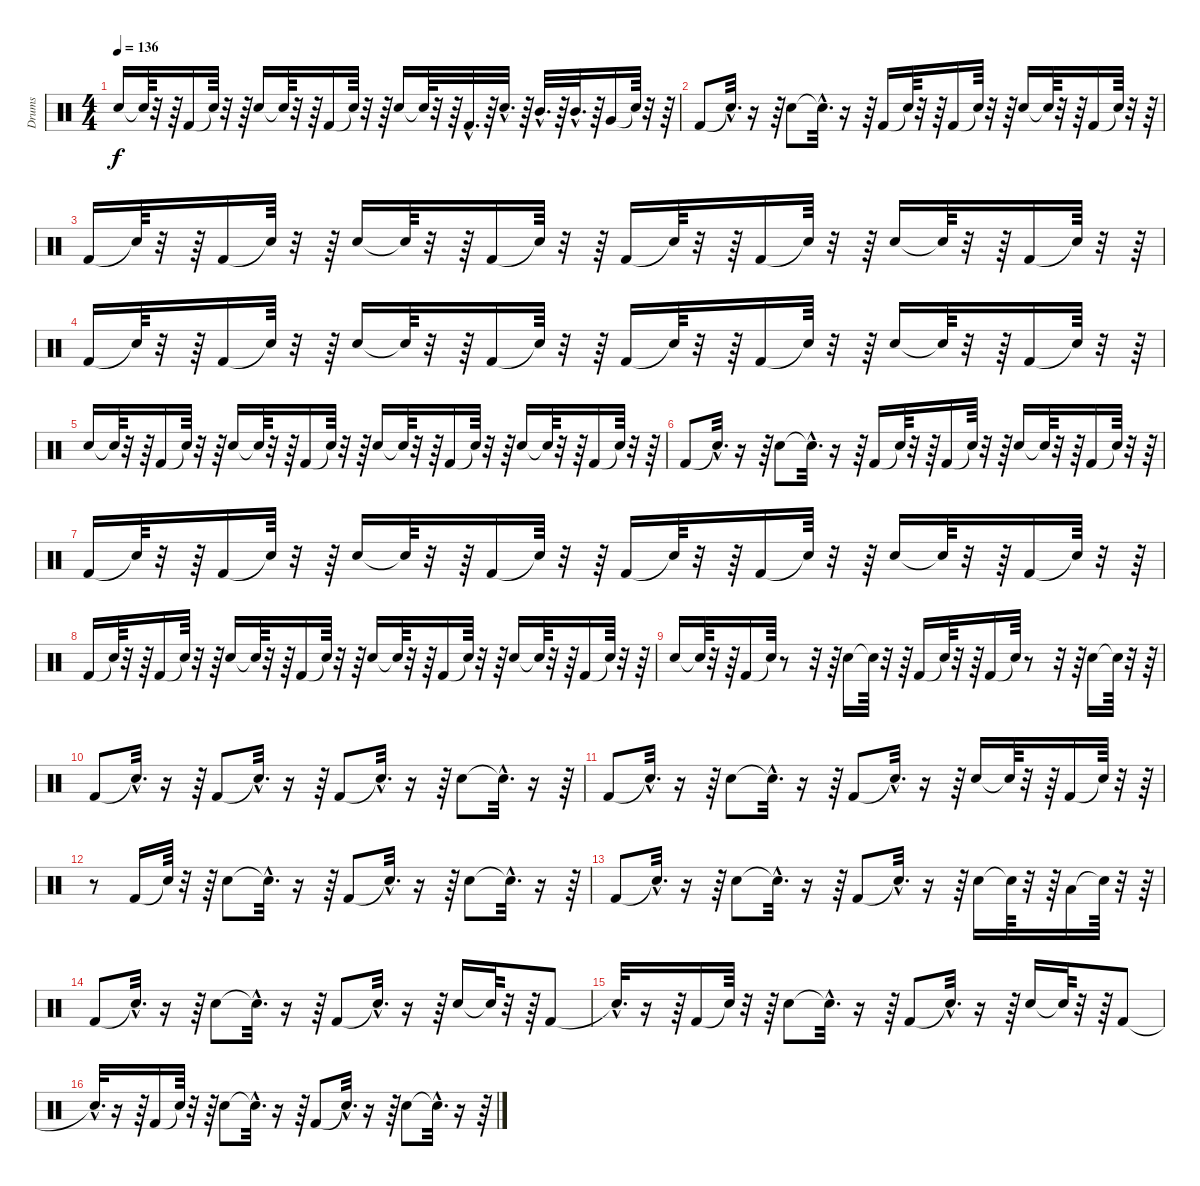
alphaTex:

\track ("Drums" "Drums") {instrument percussion}
\staff {score}
\articulation defaults
\ts (4 4)
\tempo 136
\clef neutral
\ks c "Snare (hit) 2".16{dy f} "Snare (hit)"{t}.64
r.32 r.64 "Kick (hit) 2".16 "Snare (hit)"{t}.64 r.32 r.64 "Snare (hit) 2".16 "Snare (hit)"{t}.64 r.32 r.64 "Kick (hit) 2".16 "Snare (hit)"{t}.64 r.32 r.64 "Snare (hit) 2".16 "Snare (hit)"{t}.64 r.32 r.64 "Kick (hit) 2"{hac}.32{d} r.64 "Snare (hit) 2"{hac}.32{d} r.64 "Mid Tom (hit)"{hac}.32{d} r.64 "Mid Tom (hit)"{hac}.32{d} r.64 "Very Low Tom (hit)".16 "Snare (hit)"{t}.64 r.32 r.64 |
"Kick (hit) 2".8 "Snare (hit)"{hac t}.32{d} r.16 r.64 "Snare (hit) 2".8 "Snare (hit)"{hac t}.32{d} r.16 r.64 "Kick (hit) 2".16 "Snare (hit)"{t}.64 r.32 r.64 "Kick (hit) 2".16 "Snare (hit)"{t}.64 r.32 r.64 "Snare (hit) 2".16 "Snare (hit)"{t}.64 r.32 r.64 "Kick (hit) 2".16 "Snare (hit)"{t}.64 r.32 r.64 |
"Kick (hit) 2".16 "Snare (hit)"{t}.64 r.32 r.64 "Kick (hit) 2".16 "Snare (hit)"{t}.64 r.32 r.64 "Snare (hit) 2".16 "Snare (hit)"{t}.64 r.32 r.64 "Kick (hit) 2".16 "Snare (hit)"{t}.64 r.32 r.64 "Kick (hit) 2".16 "Snare (hit)"{t}.64 r.32 r.64 "Kick (hit) 2".16 "Snare (hit)"{t}.64 r.32 r.64 "Snare (hit) 2".16 "Snare (hit)"{t}.64 r.32 r.64 "Kick (hit) 2".16 "Snare (hit)"{t}.64 r.32 r.64 |
"Kick (hit) 2".16 "Snare (hit)"{t}.64 r.32 r.64 "Kick (hit) 2".16 "Snare (hit)"{t}.64 r.32 r.64 "Snare (hit) 2".16 "Snare (hit)"{t}.64 r.32 r.64 "Kick (hit) 2".16 "Snare (hit)"{t}.64 r.32 r.64 "Kick (hit) 2".16 "Snare (hit)"{t}.64 r.32 r.64 "Kick (hit) 2".16 "Snare (hit)"{t}.64 r.32 r.64 "Snare (hit) 2".16 "Snare (hit)"{t}.64 r.32 r.64 "Kick (hit) 2".16 "Snare (hit)"{t}.64 r.32 r.64 |
"Snare (hit) 2".16 "Snare (hit)"{t}.64 r.32 r.64 "Kick (hit) 2".16 "Snare (hit)"{t}.64 r.32 r.64 "Snare (hit) 2".16 "Snare (hit)"{t}.64 r.32 r.64 "Kick (hit) 2".16 "Snare (hit)"{t}.64 r.32 r.64 "Snare (hit) 2".16 "Snare (hit)"{t}.64 r.32 r.64 "Kick (hit) 2".16 "Snare (hit)"{t}.64 r.32 r.64 "Snare (hit) 2".16 "Snare (hit)"{t}.64 r.32 r.64 "Kick (hit) 2".16 "Snare (hit)"{t}.64 r.32 r.64 |
"Kick (hit) 2".8 "Snare (hit)"{hac t}.32{d} r.16 r.64 "Snare (hit) 2".8 "Snare (hit)"{hac t}.32{d} r.16 r.64 "Kick (hit) 2".16 "Snare (hit)"{t}.64 r.32 r.64 "Kick (hit) 2".16 "Snare (hit)"{t}.64 r.32 r.64 "Snare (hit) 2".16 "Snare (hit)"{t}.64 r.32 r.64 "Kick (hit) 2".16 "Snare (hit)"{t}.64 r.32 r.64 |
"Kick (hit) 2".16 "Snare (hit)"{t}.64 r.32 r.64 "Kick (hit) 2".16 "Snare (hit)"{t}.64 r.32 r.64 "Snare (hit) 2".16 "Snare (hit)"{t}.64 r.32 r.64 "Kick (hit) 2".16 "Snare (hit)"{t}.64 r.32 r.64 "Kick (hit) 2".16 "Snare (hit)"{t}.64 r.32 r.64 "Kick (hit) 2".16 "Snare (hit)"{t}.64 r.32 r.64 "Snare (hit) 2".16 "Snare (hit)"{t}.64 r.32 r.64 "Kick (hit) 2".16 "Snare (hit)"{t}.64 r.32 r.64 |
"Kick (hit) 2".16 "Snare (hit)"{t}.64 r.32 r.64 "Kick (hit) 2".16 "Snare (hit)"{t}.64 r.32 r.64 "Snare (hit) 2".16 "Snare (hit)"{t}.64 r.32 r.64 "Kick (hit) 2".16 "Snare (hit)"{t}.64 r.32 r.64 "Snare (hit) 2".16 "Snare (hit)"{t}.64 r.32 r.64 "Kick (hit) 2".16 "Snare (hit)"{t}.64 r.32 r.64 "Snare (hit) 2".16 "Snare (hit)"{t}.64 r.32 r.64 "Kick (hit) 2".16 "Snare (hit)"{t}.64 r.32 r.64 |
"Snare (hit) 2".16 "Snare (hit)"{t}.64 r.32 r.64 "Kick (hit) 2".16 "Snare (hit)"{t}.64 r.8 r.32 r.64 "Snare (hit) 2".16 "Snare (hit)"{t}.64 r.32 r.64 "Kick (hit) 2".16 "Snare (hit)"{t}.64 r.32 r.64 "Kick (hit) 2".16 "Snare (hit)"{t}.64 r.8 r.32 r.64 "Snare (hit) 2".16 "Snare (hit)"{t}.64 r.32 r.64 |
"Kick (hit) 2".8 "Snare (hit)"{hac t}.32{d} r.16 r.64 "Kick (hit) 2".8 "Snare (hit)"{hac t}.32{d} r.16 r.64 "Kick (hit) 2".8 "Snare (hit)"{hac t}.32{d} r.16 r.64 "Snare (hit) 2".8 "Snare (hit)"{hac t}.32{d} r.16 r.64 |
"Kick (hit) 2".8 "Snare (hit)"{hac t}.32{d} r.16 r.64 "Snare (hit) 2".8 "Snare (hit)"{hac t}.32{d} r.16 r.64 "Kick (hit) 2".8 "Snare (hit)"{hac t}.32{d} r.16 r.64 "Snare (hit) 2".16 "Snare (hit)"{t}.64 r.32 r.64 "Kick (hit) 2".16 "Snare (hit)"{t}.64 r.32 r.64 |
r.8 "Kick (hit) 2".16 "Snare (hit)"{t}.64 r.32 r.64 "Snare (hit) 2".8 "Snare (hit)"{hac t}.32{d} r.16 r.64 "Kick (hit) 2".8 "Snare (hit)"{hac t}.32{d} r.16 r.64 "Snare (hit) 2".8 "Snare (hit)"{hac t}.32{d} r.16 r.64 |
"Kick (hit) 2".8 "Snare (hit)"{hac t}.32{d} r.16 r.64 "Snare (hit) 2".8 "Snare (hit)"{hac t}.32{d} r.16 r.64 "Kick (hit) 2".8 "Snare (hit)"{hac t}.32{d} r.16 r.64 "Snare (hit) 2".16 "Snare (hit)"{t}.64 r.32 r.64 "Low Tom (hit)".16 "Snare (hit)"{t}.64 r.32 r.64 |
"Kick (hit) 2".8 "Snare (hit)"{hac t}.32{d} r.16 r.64 "Snare (hit) 2".8 "Snare (hit)"{hac t}.32{d} r.16 r.64 "Kick (hit) 2".8 "Snare (hit)"{hac t}.32{d} r.16 r.64 "Snare (hit) 2".16 "Snare (hit)"{t}.64 r.32 r.64 "Kick (hit) 2".8 |
"Snare (hit)"{hac t}.32{d} r.16 r.64 "Kick (hit) 2".16 "Snare (hit)"{t}.64 r.32 r.64 "Snare (hit) 2".8 "Snare (hit)"{hac t}.32{d} r.16 r.64 "Kick (hit) 2".8 "Snare (hit)"{hac t}.32{d} r.16 r.64 "Snare (hit) 2".16 "Snare (hit)"{t}.64 r.32 r.64 "Kick (hit) 2".8 |
"Snare (hit)"{hac t}.32{d} r.16 r.64 "Kick (hit) 2".16 "Snare (hit)"{t}.64 r.32 r.64 "Snare (hit) 2".8 "Snare (hit)"{hac t}.32{d} r.16 r.64 "Kick (hit) 2".8 "Snare (hit)"{hac t}.32{d} r.16 r.64 "Snare (hit) 2".8 "Snare (hit)"{hac t}.32{d} r.16 r.64
